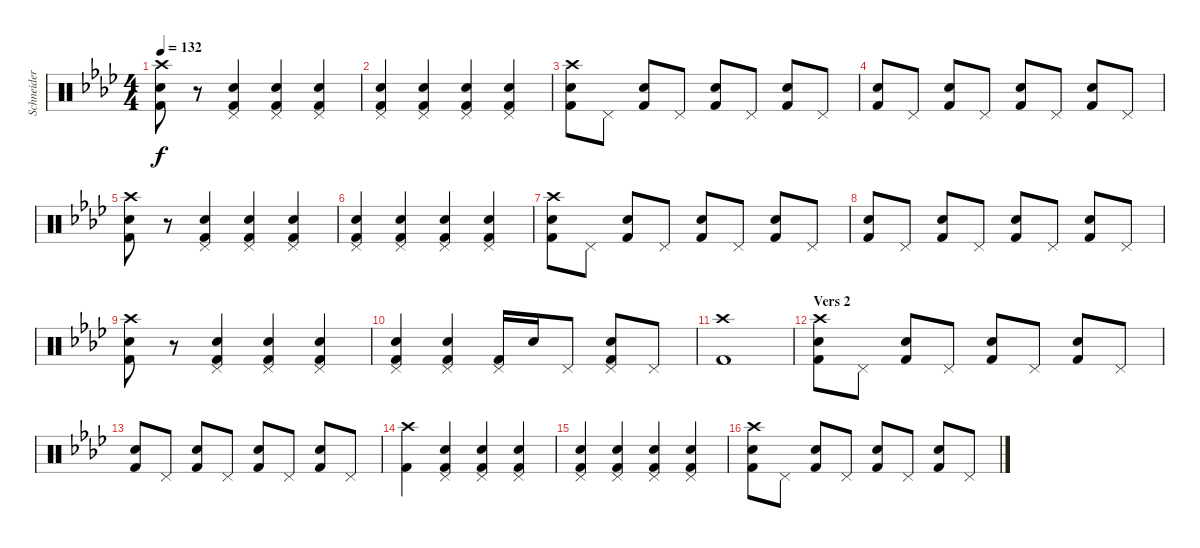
\track ("Schneider" "Schneider") {instrument percussion}
\staff {score}
\articulation defaults
\ts (4 4)
\tempo 132
\clef neutral
\ks fminor
("Crash high (hit)" "Snare (hit) 2" "Kick (hit) 2").8{dy f} r.8 ("Pedal Hi-Hat (hit)" "Snare (hit) 2" "Kick (hit) 2").4 ("Pedal Hi-Hat (hit)" "Snare (hit) 2" "Kick (hit) 2").4 ("Pedal Hi-Hat (hit)" "Snare (hit) 2" "Kick (hit) 2").4 |
("Pedal Hi-Hat (hit)" "Snare (hit) 2" "Kick (hit) 2").4 ("Pedal Hi-Hat (hit)" "Snare (hit) 2" "Kick (hit) 2").4 ("Pedal Hi-Hat (hit)" "Snare (hit) 2" "Kick (hit) 2").4 ("Pedal Hi-Hat (hit)" "Snare (hit) 2" "Kick (hit) 2").4 |
("Crash high (hit)" "Snare (hit) 2" "Kick (hit) 2").8 "Pedal Hi-Hat (hit)".8 ("Snare (hit) 2" "Kick (hit) 2").8 "Pedal Hi-Hat (hit)".8 ("Snare (hit) 2" "Kick (hit) 2").8 "Pedal Hi-Hat (hit)".8 ("Snare (hit) 2" "Kick (hit) 2").8 "Pedal Hi-Hat (hit)".8 |
("Snare (hit) 2" "Kick (hit) 2").8 "Pedal Hi-Hat (hit)".8 ("Snare (hit) 2" "Kick (hit) 2").8 "Pedal Hi-Hat (hit)".8 ("Snare (hit) 2" "Kick (hit) 2").8 "Pedal Hi-Hat (hit)".8 ("Snare (hit) 2" "Kick (hit) 2").8 "Pedal Hi-Hat (hit)".8 |
("Crash high (hit)" "Snare (hit) 2" "Kick (hit) 2").8 r.8 ("Pedal Hi-Hat (hit)" "Snare (hit) 2" "Kick (hit) 2").4 ("Pedal Hi-Hat (hit)" "Snare (hit) 2" "Kick (hit) 2").4 ("Pedal Hi-Hat (hit)" "Snare (hit) 2" "Kick (hit) 2").4 |
("Pedal Hi-Hat (hit)" "Snare (hit) 2" "Kick (hit) 2").4 ("Pedal Hi-Hat (hit)" "Snare (hit) 2" "Kick (hit) 2").4 ("Pedal Hi-Hat (hit)" "Snare (hit) 2" "Kick (hit) 2").4 ("Pedal Hi-Hat (hit)" "Snare (hit) 2" "Kick (hit) 2").4 |
("Crash high (hit)" "Snare (hit) 2" "Kick (hit) 2").8 "Pedal Hi-Hat (hit)".8 ("Snare (hit) 2" "Kick (hit) 2").8 "Pedal Hi-Hat (hit)".8 ("Snare (hit) 2" "Kick (hit) 2").8 "Pedal Hi-Hat (hit)".8 ("Snare (hit) 2" "Kick (hit) 2").8 "Pedal Hi-Hat (hit)".8 |
("Snare (hit) 2" "Kick (hit) 2").8 "Pedal Hi-Hat (hit)".8 ("Snare (hit) 2" "Kick (hit) 2").8 "Pedal Hi-Hat (hit)".8 ("Snare (hit) 2" "Kick (hit) 2").8 "Pedal Hi-Hat (hit)".8 ("Snare (hit) 2" "Kick (hit) 2").8 "Pedal Hi-Hat (hit)".8 |
("Crash high (hit)" "Snare (hit) 2" "Kick (hit) 2").8 r.8 ("Pedal Hi-Hat (hit)" "Snare (hit) 2" "Kick (hit) 2").4 ("Pedal Hi-Hat (hit)" "Snare (hit) 2" "Kick (hit) 2").4 ("Pedal Hi-Hat (hit)" "Snare (hit) 2" "Kick (hit) 2").4 |
("Pedal Hi-Hat (hit)" "Snare (hit) 2" "Kick (hit) 2").4 ("Pedal Hi-Hat (hit)" "Snare (hit) 2" "Kick (hit) 2").4 ("Pedal Hi-Hat (hit)" "Kick (hit) 2").16 "Snare (hit) 2".16 "Pedal Hi-Hat (hit)".8 ("Pedal Hi-Hat (hit)" "Snare (hit) 2" "Kick (hit) 2").8 "Pedal Hi-Hat (hit)".8 |
("Crash high (hit)" "Kick (hit) 2").1 |
\section ("" "Vers 2")
("Crash high (hit)" "Snare (hit) 2" "Kick (hit) 2").8 "Pedal Hi-Hat (hit)".8 ("Snare (hit) 2" "Kick (hit) 2").8 "Pedal Hi-Hat (hit)".8 ("Snare (hit) 2" "Kick (hit) 2").8 "Pedal Hi-Hat (hit)".8 ("Snare (hit) 2" "Kick (hit) 2").8 "Pedal Hi-Hat (hit)".8 |
("Snare (hit) 2" "Kick (hit) 2").8 "Pedal Hi-Hat (hit)".8 ("Snare (hit) 2" "Kick (hit) 2").8 "Pedal Hi-Hat (hit)".8 ("Snare (hit) 2" "Kick (hit) 2").8 "Pedal Hi-Hat (hit)".8 ("Snare (hit) 2" "Kick (hit) 2").8 "Pedal Hi-Hat (hit)".8 |
("Crash high (hit)" "Kick (hit) 2").4 ("Pedal Hi-Hat (hit)" "Snare (hit) 2" "Kick (hit) 2").4 ("Pedal Hi-Hat (hit)" "Snare (hit) 2" "Kick (hit) 2").4 ("Pedal Hi-Hat (hit)" "Snare (hit) 2" "Kick (hit) 2").4 |
("Pedal Hi-Hat (hit)" "Snare (hit) 2" "Kick (hit) 2").4 ("Pedal Hi-Hat (hit)" "Snare (hit) 2" "Kick (hit) 2").4 ("Pedal Hi-Hat (hit)" "Snare (hit) 2" "Kick (hit) 2").4 ("Pedal Hi-Hat (hit)" "Snare (hit) 2" "Kick (hit) 2").4 |
("Crash high (hit)" "Snare (hit) 2" "Kick (hit) 2").8 "Pedal Hi-Hat (hit)".8 ("Snare (hit) 2" "Kick (hit) 2").8 "Pedal Hi-Hat (hit)".8 ("Snare (hit) 2" "Kick (hit) 2").8 "Pedal Hi-Hat (hit)".8 ("Snare (hit) 2" "Kick (hit) 2").8 "Pedal Hi-Hat (hit)".8
